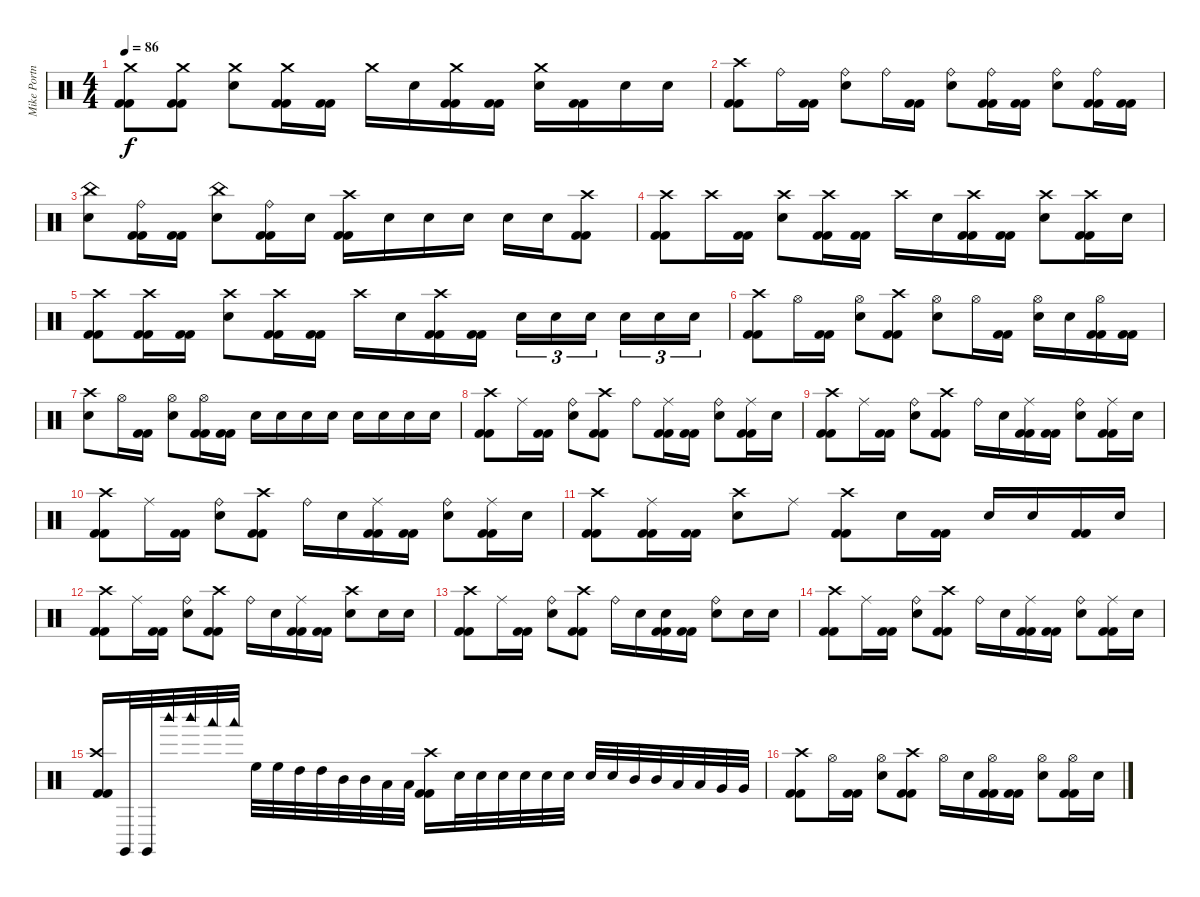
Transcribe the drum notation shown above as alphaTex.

\track ("Mike Portnoy - Drum" "Mike Portn") {instrument percussion}
\staff {score}
\articulation defaults
\ts (4 4)
\tempo 86
\clef neutral
\ks c
("Crash medium (hit)" "Kick (hit) 2" "Kick (hit) 2").8{dy f} ("Crash medium (hit)" "Kick (hit) 2" "Kick (hit) 2").8 ("Crash medium (hit)" "Snare (hit) 2").8 ("Crash medium (hit)" "Kick (hit) 2" "Kick (hit) 2").16 ("Kick (hit) 2" "Kick (hit) 2").16 "Crash medium (hit)".16 "Snare (hit) 2".16 ("Crash medium (hit)" "Kick (hit) 2" "Kick (hit) 2").16 ("Kick (hit) 2" "Kick (hit) 2").16 ("Crash medium (hit)" "Snare (hit) 2").16 ("Kick (hit) 2" "Kick (hit) 2").16 "Snare (hit) 2".16 "Snare (hit) 2".16 |
("Crash high (hit)" "Kick (hit) 2" "Kick (hit) 2").8 "Ride (bell)".16 ("Kick (hit) 2" "Kick (hit) 2").16 ("Ride (bell)" "Snare (hit) 2").8 "Ride (bell)".16 ("Kick (hit) 2" "Kick (hit) 2").16 ("Ride (bell)" "Snare (hit) 2").8 ("Ride (bell)" "Kick (hit) 2" "Kick (hit) 2").16 ("Kick (hit) 2" "Kick (hit) 2").16 ("Ride (bell)" "Snare (hit) 2").8 ("Ride (bell)" "Kick (hit) 2" "Kick (hit) 2").16 ("Kick (hit) 2" "Kick (hit) 2").16 |
("China (hit)" "Snare (hit) 2").8 ("Ride (bell)" "Kick (hit) 2" "Kick (hit) 2").16 ("Kick (hit) 2" "Kick (hit) 2").16 ("China (hit)" "Snare (hit) 2").8 ("Ride (bell)" "Kick (hit) 2" "Kick (hit) 2").16 "Snare (hit) 2".16 ("Crash high (hit)" "Kick (hit) 2" "Kick (hit) 2").16 "Snare (hit) 2".16 "Snare (hit) 2".16 "Snare (hit) 2".16 "Snare (hit) 2".16 "Snare (hit) 2".16 ("Crash high (hit)" "Kick (hit) 2" "Kick (hit) 2").8 |
("Crash high (hit)" "Kick (hit) 2" "Kick (hit) 2").8 "Crash high (hit)".16 ("Kick (hit) 2" "Kick (hit) 2").16 ("Crash high (hit)" "Snare (hit) 2").8 ("Crash high (hit)" "Kick (hit) 2" "Kick (hit) 2").16 ("Kick (hit) 2" "Kick (hit) 2").16 "Crash high (hit)".16 "Snare (hit) 2".16 ("Crash high (hit)" "Kick (hit) 2" "Kick (hit) 2").16 ("Kick (hit) 2" "Kick (hit) 2").16 ("Crash high (hit)" "Snare (hit) 2").8 ("Crash high (hit)" "Kick (hit) 2" "Kick (hit) 2").16 "Snare (hit) 2".16 |
("Crash high (hit)" "Kick (hit) 2" "Kick (hit) 2").8 ("Crash high (hit)" "Kick (hit) 2" "Kick (hit) 2").16 ("Kick (hit) 2" "Kick (hit) 2").16 ("Crash high (hit)" "Snare (hit) 2").8 ("Crash high (hit)" "Kick (hit) 2" "Kick (hit) 2").16 ("Kick (hit) 2" "Kick (hit) 2").16 "Crash high (hit)".16 "Snare (hit) 2".16 ("Crash high (hit)" "Kick (hit) 2" "Kick (hit) 2").16 ("Kick (hit) 2" "Kick (hit) 2").16 "Snare (hit) 2".16{tu (3 2)} "Snare (hit) 2".16{tu (3 2)} "Snare (hit) 2".16{tu (3 2)} "Snare (hit) 2".16{tu (3 2)} "Snare (hit) 2".16{tu (3 2)} "Snare (hit) 2".16{tu (3 2)} |
("Crash high (hit)" "Kick (hit) 2" "Kick (hit) 2").8 "Hi-Hat (open)".16 ("Kick (hit) 2" "Kick (hit) 2").16 ("Hi-Hat (open)" "Snare (hit) 2").8 ("Crash high (hit)" "Kick (hit) 2" "Kick (hit) 2").8 ("Hi-Hat (open)" "Snare (hit) 2").8 "Hi-Hat (open)".16 ("Kick (hit) 2" "Kick (hit) 2").16 ("Hi-Hat (open)" "Snare (hit) 2").16 "Snare (hit) 2".16 ("Hi-Hat (open)" "Kick (hit) 2" "Kick (hit) 2").16 ("Kick (hit) 2" "Kick (hit) 2").16 |
("Crash high (hit)" "Snare (hit) 2").8 "Hi-Hat (open)".16 ("Kick (hit) 2" "Kick (hit) 2").16 ("Hi-Hat (open)" "Snare (hit) 2").8 ("Hi-Hat (open)" "Kick (hit) 2" "Kick (hit) 2").16 ("Kick (hit) 2" "Kick (hit) 2").16 "Snare (hit) 2".16 "Snare (hit) 2".16 "Snare (hit) 2".16 "Snare (hit) 2".16 "Snare (hit) 2".16 "Snare (hit) 2".16 "Snare (hit) 2".16 "Snare (hit) 2".16 |
("Crash high (hit)" "Kick (hit) 2" "Kick (hit) 2").8 "Ride (middle)".16 ("Kick (hit) 2" "Kick (hit) 2").16 ("Ride (bell)" "Snare (hit) 2").8 ("Crash high (hit)" "Kick (hit) 2" "Kick (hit) 2").8 "Ride (bell)".8 ("Ride (middle)" "Kick (hit) 2" "Kick (hit) 2").16 ("Kick (hit) 2" "Kick (hit) 2").16 ("Ride (bell)" "Snare (hit) 2").8 ("Ride (middle)" "Kick (hit) 2" "Kick (hit) 2").16 "Snare (hit) 2".16 |
("Crash high (hit)" "Kick (hit) 2" "Kick (hit) 2").8 "Ride (middle)".16 ("Kick (hit) 2" "Kick (hit) 2").16 ("Ride (bell)" "Snare (hit) 2").8 ("Crash high (hit)" "Kick (hit) 2" "Kick (hit) 2").8 "Ride (bell)".16 "Snare (hit) 2".16 ("Ride (middle)" "Kick (hit) 2" "Kick (hit) 2").16 ("Kick (hit) 2" "Kick (hit) 2").16 ("Ride (bell)" "Snare (hit) 2").8 ("Ride (middle)" "Kick (hit) 2" "Kick (hit) 2").16 "Snare (hit) 2".16 |
("Crash high (hit)" "Kick (hit) 2" "Kick (hit) 2").8 "Ride (middle)".16 ("Kick (hit) 2" "Kick (hit) 2").16 ("Ride (bell)" "Snare (hit) 2").8 ("Crash high (hit)" "Kick (hit) 2" "Kick (hit) 2").8 "Ride (bell)".16 "Snare (hit) 2".16 ("Ride (middle)" "Kick (hit) 2" "Kick (hit) 2").16 ("Kick (hit) 2" "Kick (hit) 2").16 ("Ride (bell)" "Snare (hit) 2").8 ("Ride (middle)" "Kick (hit) 2" "Kick (hit) 2").16 "Snare (hit) 2".16 |
("Crash high (hit)" "Kick (hit) 2" "Kick (hit) 2").8 ("Ride (middle)" "Kick (hit) 2" "Kick (hit) 2").16 ("Kick (hit) 2" "Kick (hit) 2").16 ("Crash high (hit)" "Snare (hit) 2").8 "Ride (middle)".8 ("Crash high (hit)" "Kick (hit) 2" "Kick (hit) 2").8 "Snare (hit) 2".16 ("Kick (hit) 2" "Kick (hit) 2").16 "Snare (hit) 2".16 "Snare (hit) 2".16 ("Kick (hit) 2" "Kick (hit) 2").16 "Snare (hit) 2".16 |
("Crash high (hit)" "Kick (hit) 2" "Kick (hit) 2").8 "Ride (middle)".16 ("Kick (hit) 2" "Kick (hit) 2").16 ("Ride (bell)" "Snare (hit) 2").8 ("Crash high (hit)" "Kick (hit) 2" "Kick (hit) 2").8 "Ride (bell)".16 "Snare (hit) 2".16 ("Ride (middle)" "Kick (hit) 2" "Kick (hit) 2").16 ("Kick (hit) 2" "Kick (hit) 2").16 ("Crash high (hit)" "Snare (hit) 2").8 "Snare (hit) 2".16 "Snare (hit) 2".16 |
("Crash high (hit)" "Kick (hit) 2" "Kick (hit) 2").8 "Ride (middle)".16 ("Kick (hit) 2" "Kick (hit) 2").16 ("Ride (bell)" "Snare (hit) 2").8 ("Crash high (hit)" "Kick (hit) 2" "Kick (hit) 2").8 "Ride (bell)".16 "Snare (hit) 2".16 ("Snare (hit) 2" "Kick (hit) 2" "Kick (hit) 2").16 ("Kick (hit) 2" "Kick (hit) 2").16 ("Ride (bell)" "Snare (hit) 2").8 "Snare (hit) 2".16 "Snare (hit) 2".16 |
("Crash high (hit)" "Kick (hit) 2" "Kick (hit) 2").8 "Ride (middle)".16 ("Kick (hit) 2" "Kick (hit) 2").16 ("Ride (bell)" "Snare (hit) 2").8 ("Crash high (hit)" "Kick (hit) 2" "Kick (hit) 2").8 "Ride (bell)".16 "Snare (hit) 2".16 ("Ride (middle)" "Kick (hit) 2" "Kick (hit) 2").16 ("Kick (hit) 2" "Kick (hit) 2").16 ("Ride (bell)" "Snare (hit) 2").8 ("Ride (middle)" "Kick (hit) 2" "Kick (hit) 2").16 "Snare (hit) 2".16 |
("Crash high (hit)" "Kick (hit) 2" "Kick (hit) 2").16 "Claves (hit)".32 "Claves (hit)".32 "Woodblock high (hit)".32 "Woodblock high (hit)".32 "Woodblock low (hit)".32 "Woodblock low (hit)".32 "High Floor Tom (hit)".32 "High Floor Tom (hit)".32 "High Tom (hit)".32 "High Tom (hit)".32 "Mid Tom (hit)".32 "Mid Tom (hit)".32 "Low Tom (hit)".32 "Low Tom (hit)".32 ("Crash high (hit)" "Kick (hit) 2" "Kick (hit) 2").16 "Snare (hit) 2".32 "Snare (hit) 2".32 "Snare (hit) 2".32 "Snare (hit) 2".32 "Snare (hit) 2".32 "Snare (hit) 2".32 "Snare (hit) 2".32 "Snare (hit) 2".32 "Mid Tom (hit)".32 "Mid Tom (hit)".32 "Low Tom (hit)".32 "Low Tom (hit)".32 "Very Low Tom (hit)".32 "Very Low Tom (hit)".32 |
("Crash high (hit)" "Kick (hit) 2" "Kick (hit) 2").8 "Hi-Hat (open)".16 ("Kick (hit) 2" "Kick (hit) 2").16 ("Hi-Hat (open)" "Snare (hit) 2").8 ("Crash high (hit)" "Kick (hit) 2" "Kick (hit) 2").8 "Hi-Hat (open)".16 "Snare (hit) 2".16 ("Hi-Hat (open)" "Kick (hit) 2" "Kick (hit) 2").16 ("Kick (hit) 2" "Kick (hit) 2").16 ("Hi-Hat (open)" "Snare (hit) 2").8 ("Hi-Hat (open)" "Kick (hit) 2" "Kick (hit) 2").16 "Snare (hit) 2".16
